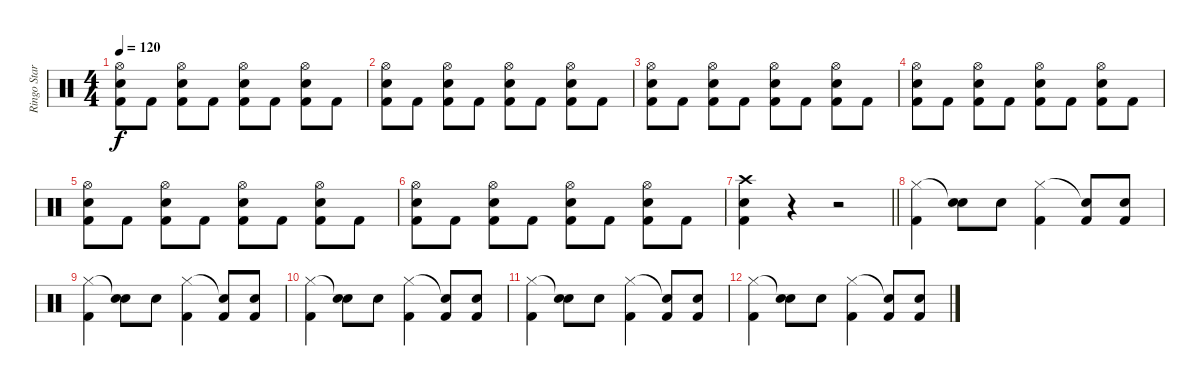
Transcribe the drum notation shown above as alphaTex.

\track ("Ringo Starr" "Ringo Star") {instrument percussion}
\staff {score}
\articulation defaults
\ts (4 4)
\tempo 120
\clef neutral
\ks c
("Hi-Hat (open)" "Electric Snare (hit)" "Kick (hit) 2").8{dy f} "Kick (hit) 2".8 ("Hi-Hat (open)" "Electric Snare (hit)" "Kick (hit) 2").8 "Kick (hit) 2".8 ("Hi-Hat (open)" "Electric Snare (hit)" "Kick (hit) 2").8 "Kick (hit) 2".8 ("Hi-Hat (open)" "Electric Snare (hit)" "Kick (hit) 2").8 "Kick (hit) 2".8 |
("Hi-Hat (open)" "Electric Snare (hit)" "Kick (hit) 2").8 "Kick (hit) 2".8 ("Hi-Hat (open)" "Electric Snare (hit)" "Kick (hit) 2").8 "Kick (hit) 2".8 ("Hi-Hat (open)" "Electric Snare (hit)" "Kick (hit) 2").8 "Kick (hit) 2".8 ("Hi-Hat (open)" "Electric Snare (hit)" "Kick (hit) 2").8 "Kick (hit) 2".8 |
("Hi-Hat (open)" "Electric Snare (hit)" "Kick (hit) 2").8 "Kick (hit) 2".8 ("Hi-Hat (open)" "Electric Snare (hit)" "Kick (hit) 2").8 "Kick (hit) 2".8 ("Hi-Hat (open)" "Electric Snare (hit)" "Kick (hit) 2").8 "Kick (hit) 2".8 ("Hi-Hat (open)" "Electric Snare (hit)" "Kick (hit) 2").8 "Kick (hit) 2".8 |
("Hi-Hat (open)" "Electric Snare (hit)" "Kick (hit) 2").8 "Kick (hit) 2".8 ("Hi-Hat (open)" "Electric Snare (hit)" "Kick (hit) 2").8 "Kick (hit) 2".8 ("Hi-Hat (open)" "Electric Snare (hit)" "Kick (hit) 2").8 "Kick (hit) 2".8 ("Hi-Hat (open)" "Electric Snare (hit)" "Kick (hit) 2").8 "Kick (hit) 2".8 |
("Hi-Hat (open)" "Electric Snare (hit)" "Kick (hit) 2").8 "Kick (hit) 2".8 ("Hi-Hat (open)" "Electric Snare (hit)" "Kick (hit) 2").8 "Kick (hit) 2".8 ("Hi-Hat (open)" "Electric Snare (hit)" "Kick (hit) 2").8 "Kick (hit) 2".8 ("Hi-Hat (open)" "Electric Snare (hit)" "Kick (hit) 2").8 "Kick (hit) 2".8 |
("Hi-Hat (open)" "Electric Snare (hit)" "Kick (hit) 2").8 "Kick (hit) 2".8 ("Hi-Hat (open)" "Electric Snare (hit)" "Kick (hit) 2").8 "Kick (hit) 2".8 ("Hi-Hat (open)" "Electric Snare (hit)" "Kick (hit) 2").8 "Kick (hit) 2".8 ("Hi-Hat (open)" "Electric Snare (hit)" "Kick (hit) 2").8 "Kick (hit) 2".8 |
\barLineRight lightlight
("Crash high (hit)" "Electric Snare (hit)" "Kick (hit) 2").4 r.4 r.2 |
("Hi-Hat (closed)" "Kick (hit) 2").4 ("Snare (hit)"{t} "Electric Snare (hit)").8 "Electric Snare (hit)".8 ("Hi-Hat (closed)" "Kick (hit) 2").4 ("Snare (hit)"{t} "Kick (hit) 2").8 ("Snare (hit) 2" "Kick (hit) 2").8 |
("Hi-Hat (closed)" "Kick (hit) 2").4 ("Snare (hit)"{t} "Electric Snare (hit)").8 "Electric Snare (hit)".8 ("Hi-Hat (closed)" "Kick (hit) 2").4 ("Snare (hit)"{t} "Kick (hit) 2").8 ("Snare (hit) 2" "Kick (hit) 2").8 |
("Hi-Hat (closed)" "Kick (hit) 2").4 ("Snare (hit)"{t} "Electric Snare (hit)").8 "Electric Snare (hit)".8 ("Hi-Hat (closed)" "Kick (hit) 2").4 ("Snare (hit)"{t} "Kick (hit) 2").8 ("Snare (hit) 2" "Kick (hit) 2").8 |
("Hi-Hat (closed)" "Kick (hit) 2").4 ("Snare (hit)"{t} "Electric Snare (hit)").8 "Electric Snare (hit)".8 ("Hi-Hat (closed)" "Kick (hit) 2").4 ("Snare (hit)"{t} "Kick (hit) 2").8 ("Snare (hit) 2" "Kick (hit) 2").8 |
("Hi-Hat (closed)" "Kick (hit) 2").4 ("Snare (hit)"{t} "Electric Snare (hit)").8 "Electric Snare (hit)".8 ("Hi-Hat (closed)" "Kick (hit) 2").4 ("Snare (hit)"{t} "Kick (hit) 2").8 ("Snare (hit) 2" "Kick (hit) 2").8
